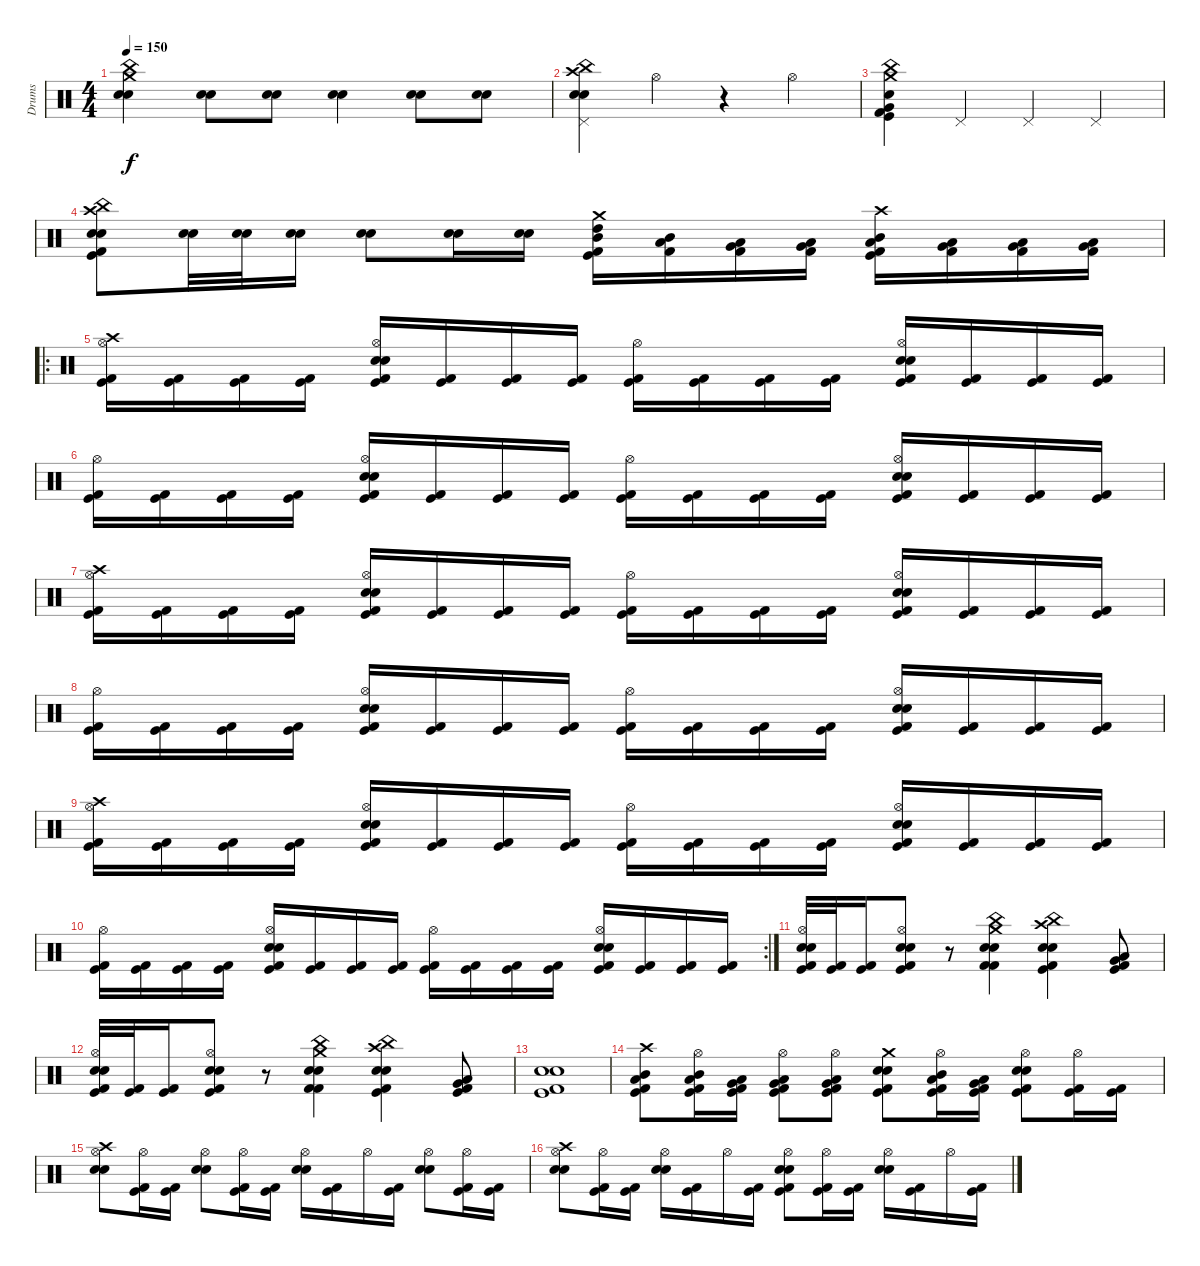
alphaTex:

\track ("Drums" "Drums") {instrument percussion}
\staff {score}
\articulation defaults
\ts (4 4)
\tempo 150
\clef neutral
\ks c
("Crash medium (hit)" "China (hit)" "Electric Snare (hit)" "Snare (hit) 2").4{dy f} ("Electric Snare (hit)" "Snare (hit) 2").8 ("Electric Snare (hit)" "Snare (hit) 2").8 ("Electric Snare (hit)" "Snare (hit) 2").4 ("Electric Snare (hit)" "Snare (hit) 2").8 ("Electric Snare (hit)" "Snare (hit) 2").8 |
("China (hit)" "Pedal Hi-Hat (hit)" "Electric Snare (hit)" "Snare (hit) 2" "Crash high (hit)").4 "Hi-Hat (open)".4 r.4 "Hi-Hat (open)".4 |
("China (hit)" "Crash medium (hit)" "Electric Snare (hit)" "Very Low Tom (hit)" "Kick (hit)" "Kick (hit) 2").4 "Pedal Hi-Hat (hit)".4 "Pedal Hi-Hat (hit)".4 "Pedal Hi-Hat (hit)".4 |
("Crash high (hit)" "China (hit)" "Electric Snare (hit)" "Snare (hit) 2" "Kick (hit) 2" "Kick (hit)").8 ("Electric Snare (hit)" "Snare (hit) 2").32 ("Electric Snare (hit)" "Snare (hit) 2").32 ("Electric Snare (hit)" "Snare (hit) 2").16 ("Electric Snare (hit)" "Snare (hit) 2").8 ("Electric Snare (hit)" "Snare (hit) 2").16 ("Electric Snare (hit)" "Snare (hit) 2").16 ("Crash medium (hit)" "High Tom (hit)" "Mid Tom (hit)" "Kick (hit)" "Kick (hit) 2").16 ("Mid Tom (hit)" "Low Tom (hit)" "Kick (hit) 2").16 ("Low Tom (hit)" "Very Low Tom (hit)" "Kick (hit) 2").16 ("Low Tom (hit)" "Very Low Tom (hit)" "Kick (hit) 2").16 ("Crash high (hit)" "Mid Tom (hit)" "Low Tom (hit)" "Kick (hit)" "Kick (hit) 2").16 ("Low Tom (hit)" "Very Low Tom (hit)" "Kick (hit) 2").16 ("Very Low Tom (hit)" "Low Floor Tom (hit)" "Kick (hit) 2").16 ("Very Low Tom (hit)" "Low Floor Tom (hit)" "Kick (hit) 2").16 |
\ro
("Crash high (hit)" "Hi-Hat (open)" "Kick (hit)" "Kick (hit) 2").16 ("Kick (hit)" "Kick (hit) 2").16 ("Kick (hit)" "Kick (hit) 2").16 ("Kick (hit)" "Kick (hit) 2").16 ("Hi-Hat (open)" "Snare (hit) 2" "Electric Snare (hit)" "Kick (hit)" "Kick (hit) 2").16 ("Kick (hit)" "Kick (hit) 2").16 ("Kick (hit)" "Kick (hit) 2").16 ("Kick (hit)" "Kick (hit) 2").16 ("Hi-Hat (open)" "Kick (hit)" "Kick (hit) 2").16 ("Kick (hit)" "Kick (hit) 2").16 ("Kick (hit)" "Kick (hit) 2").16 ("Kick (hit)" "Kick (hit) 2").16 ("Hi-Hat (open)" "Snare (hit) 2" "Electric Snare (hit)" "Kick (hit)" "Kick (hit) 2").16 ("Kick (hit)" "Kick (hit) 2").16 ("Kick (hit)" "Kick (hit) 2").16 ("Kick (hit)" "Kick (hit) 2").16 |
("Hi-Hat (open)" "Kick (hit)" "Kick (hit) 2").16 ("Kick (hit)" "Kick (hit) 2").16 ("Kick (hit)" "Kick (hit) 2").16 ("Kick (hit)" "Kick (hit) 2").16 ("Hi-Hat (open)" "Snare (hit) 2" "Electric Snare (hit)" "Kick (hit)" "Kick (hit) 2").16 ("Kick (hit)" "Kick (hit) 2").16 ("Kick (hit)" "Kick (hit) 2").16 ("Kick (hit)" "Kick (hit) 2").16 ("Hi-Hat (open)" "Kick (hit)" "Kick (hit) 2").16 ("Kick (hit)" "Kick (hit) 2").16 ("Kick (hit)" "Kick (hit) 2").16 ("Kick (hit)" "Kick (hit) 2").16 ("Hi-Hat (open)" "Snare (hit) 2" "Electric Snare (hit)" "Kick (hit)" "Kick (hit) 2").16 ("Kick (hit)" "Kick (hit) 2").16 ("Kick (hit)" "Kick (hit) 2").16 ("Kick (hit)" "Kick (hit) 2").16 |
("Crash high (hit)" "Hi-Hat (open)" "Kick (hit)" "Kick (hit) 2").16 ("Kick (hit)" "Kick (hit) 2").16 ("Kick (hit)" "Kick (hit) 2").16 ("Kick (hit)" "Kick (hit) 2").16 ("Hi-Hat (open)" "Snare (hit) 2" "Electric Snare (hit)" "Kick (hit)" "Kick (hit) 2").16 ("Kick (hit)" "Kick (hit) 2").16 ("Kick (hit)" "Kick (hit) 2").16 ("Kick (hit)" "Kick (hit) 2").16 ("Hi-Hat (open)" "Kick (hit)" "Kick (hit) 2").16 ("Kick (hit)" "Kick (hit) 2").16 ("Kick (hit)" "Kick (hit) 2").16 ("Kick (hit)" "Kick (hit) 2").16 ("Hi-Hat (open)" "Snare (hit) 2" "Electric Snare (hit)" "Kick (hit)" "Kick (hit) 2").16 ("Kick (hit)" "Kick (hit) 2").16 ("Kick (hit)" "Kick (hit) 2").16 ("Kick (hit)" "Kick (hit) 2").16 |
("Hi-Hat (open)" "Kick (hit)" "Kick (hit) 2").16 ("Kick (hit)" "Kick (hit) 2").16 ("Kick (hit)" "Kick (hit) 2").16 ("Kick (hit)" "Kick (hit) 2").16 ("Hi-Hat (open)" "Snare (hit) 2" "Electric Snare (hit)" "Kick (hit)" "Kick (hit) 2").16 ("Kick (hit)" "Kick (hit) 2").16 ("Kick (hit)" "Kick (hit) 2").16 ("Kick (hit)" "Kick (hit) 2").16 ("Hi-Hat (open)" "Kick (hit)" "Kick (hit) 2").16 ("Kick (hit)" "Kick (hit) 2").16 ("Kick (hit)" "Kick (hit) 2").16 ("Kick (hit)" "Kick (hit) 2").16 ("Hi-Hat (open)" "Snare (hit) 2" "Electric Snare (hit)" "Kick (hit)" "Kick (hit) 2").16 ("Kick (hit)" "Kick (hit) 2").16 ("Kick (hit)" "Kick (hit) 2").16 ("Kick (hit)" "Kick (hit) 2").16 |
("Crash high (hit)" "Hi-Hat (open)" "Kick (hit)" "Kick (hit) 2").16 ("Kick (hit)" "Kick (hit) 2").16 ("Kick (hit)" "Kick (hit) 2").16 ("Kick (hit)" "Kick (hit) 2").16 ("Hi-Hat (open)" "Snare (hit) 2" "Electric Snare (hit)" "Kick (hit)" "Kick (hit) 2").16 ("Kick (hit)" "Kick (hit) 2").16 ("Kick (hit)" "Kick (hit) 2").16 ("Kick (hit)" "Kick (hit) 2").16 ("Hi-Hat (open)" "Kick (hit)" "Kick (hit) 2").16 ("Kick (hit)" "Kick (hit) 2").16 ("Kick (hit)" "Kick (hit) 2").16 ("Kick (hit)" "Kick (hit) 2").16 ("Hi-Hat (open)" "Snare (hit) 2" "Electric Snare (hit)" "Kick (hit)" "Kick (hit) 2").16 ("Kick (hit)" "Kick (hit) 2").16 ("Kick (hit)" "Kick (hit) 2").16 ("Kick (hit)" "Kick (hit) 2").16 |
\rc 2
("Hi-Hat (open)" "Kick (hit)" "Kick (hit) 2").16 ("Kick (hit)" "Kick (hit) 2").16 ("Kick (hit)" "Kick (hit) 2").16 ("Kick (hit)" "Kick (hit) 2").16 ("Hi-Hat (open)" "Snare (hit) 2" "Electric Snare (hit)" "Kick (hit)" "Kick (hit) 2").16 ("Kick (hit)" "Kick (hit) 2").16 ("Kick (hit)" "Kick (hit) 2").16 ("Kick (hit)" "Kick (hit) 2").16 ("Hi-Hat (open)" "Kick (hit)" "Kick (hit) 2").16 ("Kick (hit)" "Kick (hit) 2").16 ("Kick (hit)" "Kick (hit) 2").16 ("Kick (hit)" "Kick (hit) 2").16 ("Hi-Hat (open)" "Snare (hit) 2" "Electric Snare (hit)" "Kick (hit)" "Kick (hit) 2").16 ("Kick (hit)" "Kick (hit) 2").16 ("Kick (hit)" "Kick (hit) 2").16 ("Kick (hit)" "Kick (hit) 2").16 |
("Hi-Hat (open)" "Snare (hit) 2" "Electric Snare (hit)" "Kick (hit) 2" "Kick (hit)").32 ("Kick (hit)" "Kick (hit) 2").32 ("Kick (hit) 2" "Kick (hit)").16 ("Hi-Hat (open)" "Snare (hit) 2" "Electric Snare (hit)" "Kick (hit)" "Kick (hit) 2").8 r.8 ("Crash medium (hit)" "Electric Snare (hit)" "Snare (hit) 2" "China (hit)" "Kick (hit) 2" "Kick (hit) 2").4 ("Crash high (hit)" "Electric Snare (hit)" "Snare (hit) 2" "China (hit)" "Kick (hit)" "Kick (hit) 2").4 ("Very Low Tom (hit)" "Low Tom (hit)" "Kick (hit) 2" "Kick (hit)").8 |
("Hi-Hat (open)" "Snare (hit) 2" "Electric Snare (hit)" "Kick (hit) 2" "Kick (hit)").32 ("Kick (hit)" "Kick (hit) 2").32 ("Kick (hit) 2" "Kick (hit)").16 ("Hi-Hat (open)" "Snare (hit) 2" "Electric Snare (hit)" "Kick (hit)" "Kick (hit) 2").8 r.8 ("Crash medium (hit)" "Electric Snare (hit)" "Snare (hit) 2" "China (hit)" "Kick (hit) 2" "Kick (hit) 2").4 ("Crash high (hit)" "Electric Snare (hit)" "Snare (hit) 2" "China (hit)" "Kick (hit)" "Kick (hit) 2").4 ("Kick (hit)" "Low Tom (hit)" "Very Low Tom (hit)" "Kick (hit) 2").8 |
("Snare (hit) 2" "Electric Snare (hit)" "Kick (hit) 2" "Kick (hit)").1 |
("Crash high (hit)" "Mid Tom (hit)" "Low Tom (hit)" "Kick (hit) 2" "Kick (hit)").8 ("Hi-Hat (open)" "Mid Tom (hit)" "Low Tom (hit)" "Kick (hit) 2" "Kick (hit)").16 ("Very Low Tom (hit)" "Low Tom (hit)" "Kick (hit) 2" "Kick (hit)").16 ("Hi-Hat (open)" "Low Floor Tom (hit)" "Very Low Tom (hit)" "Kick (hit) 2" "Kick (hit)").8 ("Hi-Hat (open)" "Low Floor Tom (hit)" "Very Low Tom (hit)" "Kick (hit) 2" "Kick (hit)").8 ("Crash medium (hit)" "Electric Snare (hit)" "Snare (hit) 2" "Kick (hit)" "Kick (hit) 2").8 ("Hi-Hat (open)" "Mid Tom (hit)" "Low Tom (hit)" "Kick (hit)" "Kick (hit) 2").16 ("Very Low Tom (hit)" "Low Tom (hit)" "Kick (hit)" "Kick (hit) 2").16 ("Hi-Hat (open)" "Electric Snare (hit)" "Snare (hit) 2" "Kick (hit)" "Kick (hit) 2").8 ("Hi-Hat (open)" "Kick (hit)" "Kick (hit) 2").16 ("Kick (hit)" "Kick (hit) 2").16 |
("Crash high (hit)" "Hi-Hat (open)" "Electric Snare (hit)" "Snare (hit) 2").8 ("Hi-Hat (open)" "Kick (hit) 2" "Kick (hit)").16 ("Kick (hit) 2" "Kick (hit)").16 ("Hi-Hat (open)" "Electric Snare (hit)" "Snare (hit) 2").8 ("Hi-Hat (open)" "Kick (hit)" "Kick (hit) 2").16 ("Kick (hit)" "Kick (hit) 2").16 ("Hi-Hat (open)" "Electric Snare (hit)" "Snare (hit) 2").16 ("Kick (hit) 2" "Kick (hit)").16 "Hi-Hat (open)".16 ("Kick (hit) 2" "Kick (hit)").16 ("Hi-Hat (open)" "Electric Snare (hit)" "Snare (hit) 2").8 ("Hi-Hat (open)" "Kick (hit)" "Kick (hit) 2").16 ("Kick (hit) 2" "Kick (hit)").16 |
("Crash high (hit)" "Hi-Hat (open)" "Electric Snare (hit)" "Snare (hit) 2").8 ("Hi-Hat (open)" "Kick (hit) 2" "Kick (hit)").16 ("Kick (hit) 2" "Kick (hit)").16 ("Hi-Hat (open)" "Electric Snare (hit)" "Snare (hit) 2").16 ("Kick (hit) 2" "Kick (hit)").16 "Hi-Hat (open)".16 ("Kick (hit)" "Kick (hit) 2").16 ("Hi-Hat (open)" "Snare (hit) 2" "Electric Snare (hit)" "Kick (hit)" "Kick (hit) 2").8 ("Hi-Hat (open)" "Kick (hit) 2" "Kick (hit)").16 ("Kick (hit) 2" "Kick (hit)").16 ("Hi-Hat (open)" "Electric Snare (hit)" "Snare (hit) 2").16 ("Kick (hit)" "Kick (hit) 2").16 "Hi-Hat (open)".16 ("Kick (hit)" "Kick (hit) 2").16
